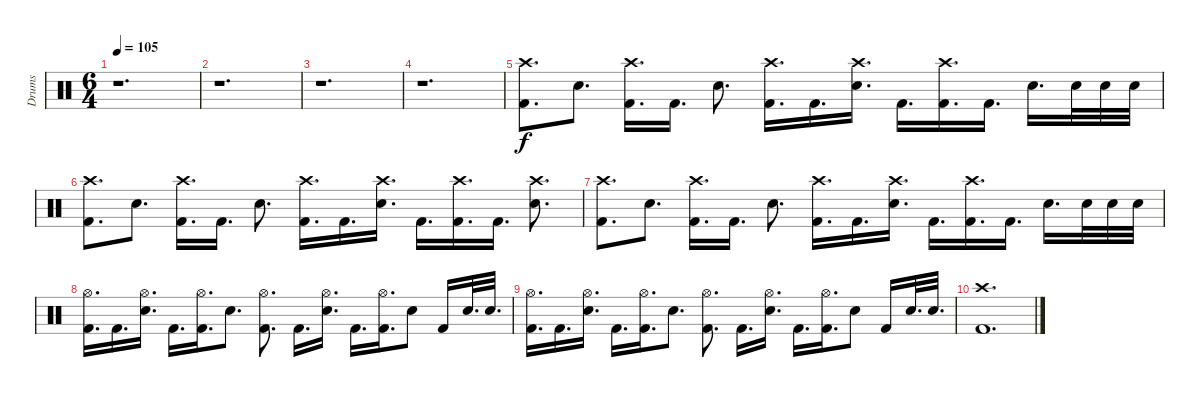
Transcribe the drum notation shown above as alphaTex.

\track ("Drums" "Drums") {instrument percussion}
\staff {score}
\articulation defaults
\ts (6 4)
\tempo 105
\clef neutral
\ks c
r.1{d dy f} |
r.1{d} |
r.1{d} |
r.1{d} |
("Kick (hit) 2" "Crash high (hit)").8{d} "Snare (hit) 2".8{d} ("Kick (hit) 2" "Crash high (hit)").16{d} "Kick (hit) 2".16{d} "Snare (hit) 2".8{d} ("Kick (hit) 2" "Crash high (hit)").16{d} "Kick (hit) 2".16{d} ("Snare (hit) 2" "Crash high (hit)").16{d} "Kick (hit) 2".16{d} ("Kick (hit) 2" "Crash high (hit)").16{d} "Kick (hit) 2".16{d} "Snare (hit) 2".16{d} "Snare (hit) 2".32 "Snare (hit) 2".32 "Snare (hit) 2".32 |
("Kick (hit) 2" "Crash high (hit)").8{d} "Snare (hit) 2".8{d} ("Kick (hit) 2" "Crash high (hit)").16{d} "Kick (hit) 2".16{d} "Snare (hit) 2".8{d} ("Kick (hit) 2" "Crash high (hit)").16{d} "Kick (hit) 2".16{d} ("Snare (hit) 2" "Crash high (hit)").16{d} "Kick (hit) 2".16{d} ("Kick (hit) 2" "Crash high (hit)").16{d} "Kick (hit) 2".16{d} ("Snare (hit) 2" "Crash high (hit)").8{d} |
("Kick (hit) 2" "Crash high (hit)").8{d} "Snare (hit) 2".8{d} ("Kick (hit) 2" "Crash high (hit)").16{d} "Kick (hit) 2".16{d} "Snare (hit) 2".8{d} ("Kick (hit) 2" "Crash high (hit)").16{d} "Kick (hit) 2".16{d} ("Snare (hit) 2" "Crash high (hit)").16{d} "Kick (hit) 2".16{d} ("Kick (hit) 2" "Crash high (hit)").16{d} "Kick (hit) 2".16{d} "Snare (hit) 2".16{d} "Snare (hit) 2".32 "Snare (hit) 2".32 "Snare (hit) 2".32 |
("Kick (hit) 2" "Hi-Hat (open)").16{d} "Kick (hit) 2".16{d} ("Snare (hit) 2" "Hi-Hat (open)").16{d} "Kick (hit) 2".16{d} ("Kick (hit) 2" "Hi-Hat (open)").16{d} "Snare (hit) 2".8{d} ("Kick (hit) 2" "Hi-Hat (open)").8{d} "Kick (hit) 2".16{d} ("Snare (hit) 2" "Hi-Hat (open)").16{d} "Kick (hit) 2".16{d} ("Kick (hit) 2" "Hi-Hat (open)").16{d} "Snare (hit) 2".8 "Kick (hit) 2".16 "Snare (hit) 2".32{d} "Snare (hit) 2".32{d} |
("Kick (hit) 2" "Hi-Hat (open)").16{d} "Kick (hit) 2".16{d} ("Snare (hit) 2" "Hi-Hat (open)").16{d} "Kick (hit) 2".16{d} ("Kick (hit) 2" "Hi-Hat (open)").16{d} "Snare (hit) 2".8{d} ("Kick (hit) 2" "Hi-Hat (open)").8{d} "Kick (hit) 2".16{d} ("Snare (hit) 2" "Hi-Hat (open)").16{d} "Kick (hit) 2".16{d} ("Kick (hit) 2" "Hi-Hat (open)").16{d} "Snare (hit) 2".8 "Kick (hit) 2".16 "Snare (hit) 2".32{d} "Snare (hit) 2".32{d} |
("Kick (hit) 2" "Crash high (hit)").1{d}
